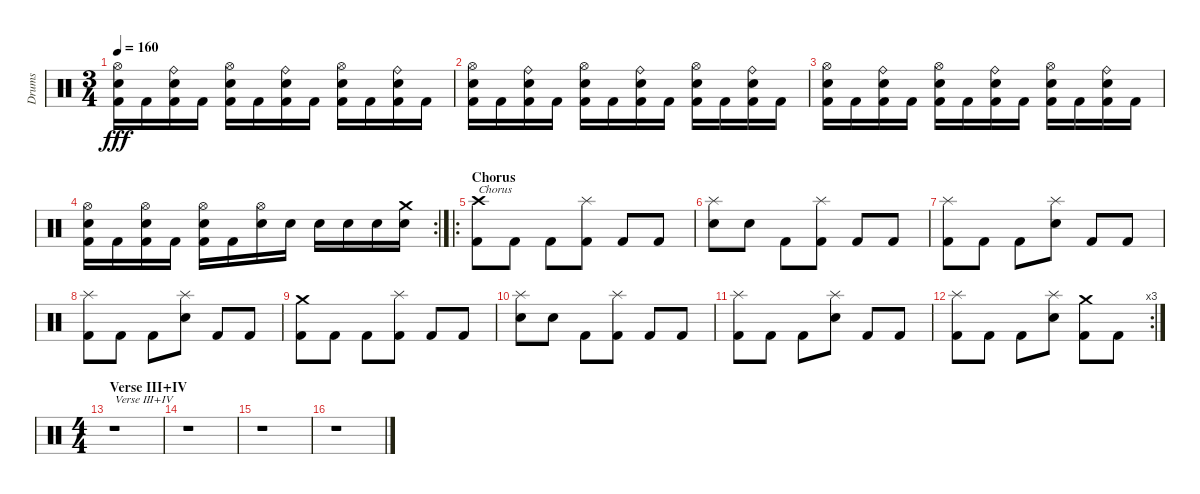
\track ("Drums" "Drums") {instrument percussion}
\staff {score}
\articulation defaults
\ts (3 4)
\tempo 160
\clef neutral
\ks c
("Hi-Hat (open)" "Electric Snare (hit)" "Kick (hit) 2").16{dy fff} "Kick (hit) 2".16 ("Ride (bell)" "Electric Snare (hit)" "Kick (hit) 2").16 "Kick (hit) 2".16 ("Hi-Hat (open)" "Electric Snare (hit)" "Kick (hit) 2").16 "Kick (hit) 2".16 ("Ride (bell)" "Electric Snare (hit)" "Kick (hit) 2").16 "Kick (hit) 2".16 ("Hi-Hat (open)" "Electric Snare (hit)" "Kick (hit) 2").16 "Kick (hit) 2".16 ("Ride (bell)" "Electric Snare (hit)" "Kick (hit) 2").16 "Kick (hit) 2".16 |
("Hi-Hat (open)" "Electric Snare (hit)" "Kick (hit) 2").16 "Kick (hit) 2".16 ("Ride (bell)" "Electric Snare (hit)" "Kick (hit) 2").16 "Kick (hit) 2".16 ("Hi-Hat (open)" "Electric Snare (hit)" "Kick (hit) 2").16 "Kick (hit) 2".16 ("Ride (bell)" "Electric Snare (hit)" "Kick (hit) 2").16 "Kick (hit) 2".16 ("Hi-Hat (open)" "Electric Snare (hit)" "Kick (hit) 2").16 "Kick (hit) 2".16 ("Ride (bell)" "Electric Snare (hit)" "Kick (hit) 2").16 "Kick (hit) 2".16 |
("Hi-Hat (open)" "Electric Snare (hit)" "Kick (hit) 2").16 "Kick (hit) 2".16 ("Ride (bell)" "Electric Snare (hit)" "Kick (hit) 2").16 "Kick (hit) 2".16 ("Hi-Hat (open)" "Electric Snare (hit)" "Kick (hit) 2").16 "Kick (hit) 2".16 ("Ride (bell)" "Electric Snare (hit)" "Kick (hit) 2").16 "Kick (hit) 2".16 ("Hi-Hat (open)" "Electric Snare (hit)" "Kick (hit) 2").16 "Kick (hit) 2".16 ("Ride (bell)" "Electric Snare (hit)" "Kick (hit) 2").16 "Kick (hit) 2".16 |
\rc 2
("Hi-Hat (open)" "Electric Snare (hit)" "Kick (hit) 2").16 "Kick (hit) 2".16 ("Hi-Hat (open)" "Electric Snare (hit)" "Kick (hit) 2").16 "Kick (hit) 2".16 ("Hi-Hat (open)" "Electric Snare (hit)" "Kick (hit) 2").16 "Kick (hit) 2".16 ("Hi-Hat (open)" "Electric Snare (hit)").16 "Electric Snare (hit)".16 "Electric Snare (hit)".16 "Electric Snare (hit)".16 "Electric Snare (hit)".16 ("Crash medium (hit)" "Electric Snare (hit)").16 |
\ro
\section ("" "Chorus")
("Crash high (hit)" "Kick (hit) 2").8{txt "Chorus"} "Kick (hit) 2".8 "Kick (hit) 2".8 ("Splash (hit)" "Kick (hit) 2").8 "Kick (hit) 2".8 "Kick (hit) 2".8 |
("Splash (hit)" "Electric Snare (hit)").8 "Electric Snare (hit)".8 "Kick (hit) 2".8 ("Splash (hit)" "Kick (hit) 2").8 "Kick (hit) 2".8 "Kick (hit) 2".8 |
("Splash (hit)" "Kick (hit) 2").8 "Kick (hit) 2".8 "Kick (hit) 2".8 ("Splash (hit)" "Electric Snare (hit)").8 "Kick (hit) 2".8 "Kick (hit) 2".8 |
("Splash (hit)" "Kick (hit) 2").8 "Kick (hit) 2".8 "Kick (hit) 2".8 ("Splash (hit)" "Electric Snare (hit)").8 "Kick (hit) 2".8 "Kick (hit) 2".8 |
("Crash medium (hit)" "Kick (hit) 2").8 "Kick (hit) 2".8 "Kick (hit) 2".8 ("Splash (hit)" "Kick (hit) 2").8 "Kick (hit) 2".8 "Kick (hit) 2".8 |
("Splash (hit)" "Electric Snare (hit)").8 "Electric Snare (hit)".8 "Kick (hit) 2".8 ("Splash (hit)" "Kick (hit) 2").8 "Kick (hit) 2".8 "Kick (hit) 2".8 |
("Splash (hit)" "Kick (hit) 2").8 "Kick (hit) 2".8 "Kick (hit) 2".8 ("Splash (hit)" "Electric Snare (hit)").8 "Kick (hit) 2".8 "Kick (hit) 2".8 |
\rc 3
("Splash (hit)" "Kick (hit) 2").8 "Kick (hit) 2".8 "Kick (hit) 2".8 ("Splash (hit)" "Electric Snare (hit)").8 ("Crash medium (hit)" "Kick (hit) 2").8 "Kick (hit) 2".8 |
\ts (4 4)
\section ("" "Verse III+IV")
r.1{txt "Verse III+IV"} |
r.1 |
r.1 |
r.1
